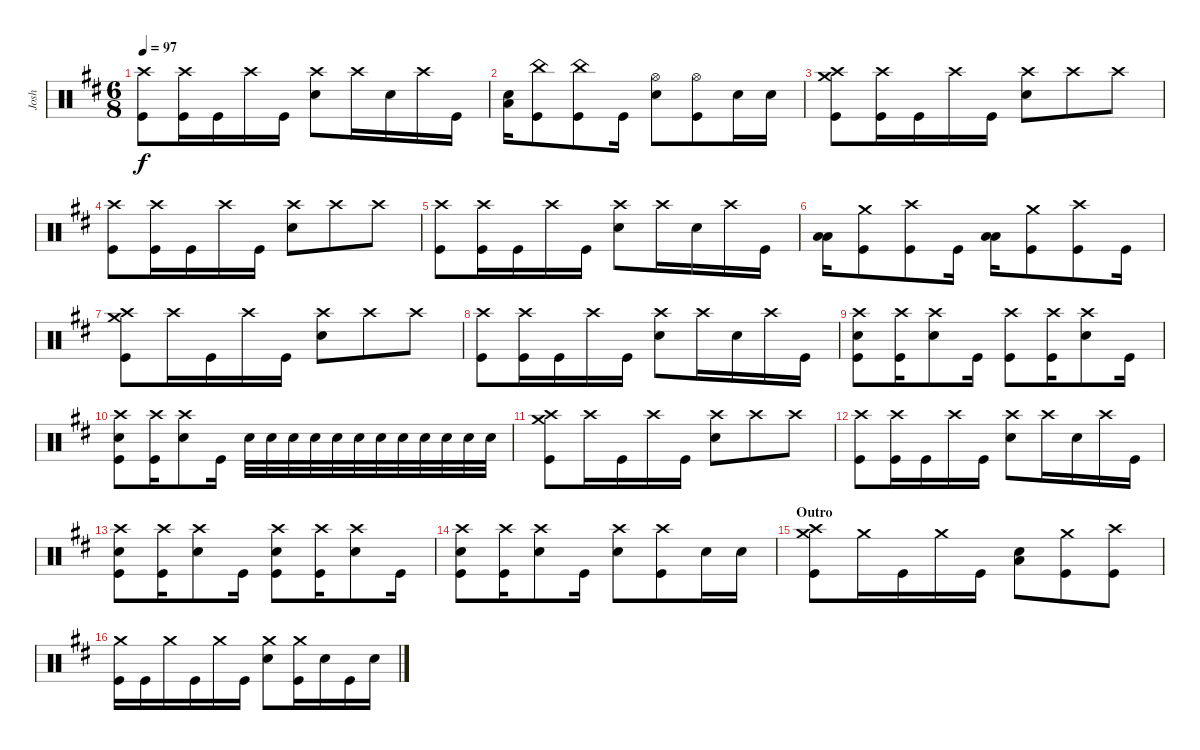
\track ("Josh" "Josh") {instrument percussion}
\staff {score}
\articulation defaults
\ts (6 8)
\tempo 97
\clef neutral
\ks bminor
("Kick (hit)" "Crash high (hit)").8{dy f} ("Kick (hit)" "Crash high (hit)").16 "Kick (hit)".16 "Crash high (hit)".16 "Kick (hit)".16 ("Snare (hit) 2" "Crash high (hit)").8 "Crash high (hit)".16 "Snare (hit) 2".16 "Crash high (hit)".16 "Kick (hit)".16 |
("Snare (hit) 2" "Low Floor Tom (hit)").16 ("Kick (hit)" "China (hit)").8 ("Kick (hit)" "China (hit)").8 "Kick (hit)".16 ("Snare (hit) 2" "Hi-Hat (open)").8 ("Kick (hit)" "Hi-Hat (open)").8 "Snare (hit) 2".16 "Snare (hit) 2".16 |
("Kick (hit)" "Crash high (hit)" "Crash medium (hit)").8 ("Kick (hit)" "Crash high (hit)").16 "Kick (hit)".16 "Crash high (hit)".16 "Kick (hit)".16 ("Snare (hit) 2" "Crash high (hit)").8 "Crash high (hit)".8 "Crash high (hit)".8 |
("Kick (hit)" "Crash high (hit)").8 ("Kick (hit)" "Crash high (hit)").16 "Kick (hit)".16 "Crash high (hit)".16 "Kick (hit)".16 ("Snare (hit) 2" "Crash high (hit)").8 "Crash high (hit)".8 "Crash high (hit)".8 |
("Kick (hit)" "Crash high (hit)").8 ("Kick (hit)" "Crash high (hit)").16 "Kick (hit)".16 "Crash high (hit)".16 "Kick (hit)".16 ("Snare (hit) 2" "Crash high (hit)").8 "Crash high (hit)".16 "Snare (hit) 2".16 "Crash high (hit)".16 "Kick (hit)".16 |
("Low Floor Tom (hit)" "Low Tom (hit)").16 ("Kick (hit)" "Crash medium (hit)").8 ("Kick (hit)" "Crash high (hit)").8 "Kick (hit)".16 ("Low Floor Tom (hit)" "Low Tom (hit)").16 ("Kick (hit)" "Crash medium (hit)").8 ("Kick (hit)" "Crash high (hit)").8 "Kick (hit)".16 |
("Kick (hit)" "Crash high (hit)" "Crash medium (hit)").8 "Crash high (hit)".16 "Kick (hit)".16 "Crash high (hit)".16 "Kick (hit)".16 ("Snare (hit) 2" "Crash high (hit)").8 "Crash high (hit)".8 "Crash high (hit)".8 |
("Kick (hit)" "Crash high (hit)").8 ("Crash high (hit)" "Kick (hit)").16 "Kick (hit)".16 "Crash high (hit)".16 "Kick (hit)".16 ("Snare (hit) 2" "Crash high (hit)").8 "Crash high (hit)".16 "Snare (hit) 2".16 "Crash high (hit)".16 "Kick (hit)".16 |
("Crash high (hit)" "Snare (hit) 2" "Kick (hit)").8 ("Kick (hit)" "Crash high (hit)").16 ("Crash high (hit)" "Snare (hit) 2").8 "Kick (hit)".16 ("Kick (hit)" "Crash high (hit)").8 ("Kick (hit)" "Crash high (hit)").16 ("Crash high (hit)" "Snare (hit) 2").8 "Kick (hit)".16 |
("Kick (hit)" "Crash high (hit)" "Snare (hit) 2").8 ("Kick (hit)" "Crash high (hit)").16 ("Crash high (hit)" "Snare (hit) 2").8 "Kick (hit)".16 "Snare (hit) 2".32 "Snare (hit) 2".32 "Snare (hit) 2".32 "Snare (hit) 2".32 "Snare (hit) 2".32 "Snare (hit) 2".32 "Snare (hit) 2".32 "Snare (hit) 2".32 "Snare (hit) 2".32 "Snare (hit) 2".32 "Snare (hit) 2".32 "Snare (hit) 2".32 |
("Kick (hit)" "Crash high (hit)" "Crash medium (hit)").8 "Crash high (hit)".16 "Kick (hit)".16 "Crash high (hit)".16 "Kick (hit)".16 ("Snare (hit) 2" "Crash high (hit)").8 "Crash high (hit)".8 "Crash high (hit)".8 |
("Kick (hit)" "Crash high (hit)").8 ("Crash high (hit)" "Kick (hit)").16 "Kick (hit)".16 "Crash high (hit)".16 "Kick (hit)".16 ("Snare (hit) 2" "Crash high (hit)").8 "Crash high (hit)".16 "Snare (hit) 2".16 "Crash high (hit)".16 "Kick (hit)".16 |
("Kick (hit)" "Crash high (hit)" "Snare (hit) 2").8 ("Kick (hit)" "Crash high (hit)").16 ("Crash high (hit)" "Snare (hit) 2").8 "Kick (hit)".16 ("Kick (hit)" "Crash high (hit)" "Snare (hit) 2").8 ("Kick (hit)" "Crash high (hit)").16 ("Crash high (hit)" "Snare (hit) 2").8 "Kick (hit)".16 |
("Kick (hit)" "Crash high (hit)" "Snare (hit) 2").8 ("Kick (hit)" "Crash high (hit)").16 ("Crash high (hit)" "Snare (hit) 2").8 "Kick (hit)".16 ("Snare (hit) 2" "Crash high (hit)").8 ("Kick (hit)" "Crash high (hit)").8 "Snare (hit) 2".16 "Snare (hit) 2".16 |
\section ("" "Outro")
("Kick (hit)" "Crash medium (hit)" "Crash high (hit)").8 "Crash medium (hit)".16 "Kick (hit)".16 "Crash medium (hit)".16 "Kick (hit)".16 ("Snare (hit) 2" "Low Floor Tom (hit)").8 ("Kick (hit)" "Crash medium (hit)").8 ("Kick (hit)" "Crash high (hit)").8 |
("Kick (hit)" "Crash medium (hit)").16 "Kick (hit)".16 "Crash medium (hit)".16 "Kick (hit)".16 "Crash medium (hit)".16 "Kick (hit)".16 ("Snare (hit) 2" "Crash medium (hit)").8 ("Kick (hit)" "Crash medium (hit)").16 "Snare (hit) 2".16 "Kick (hit)".16 "Snare (hit) 2".16
